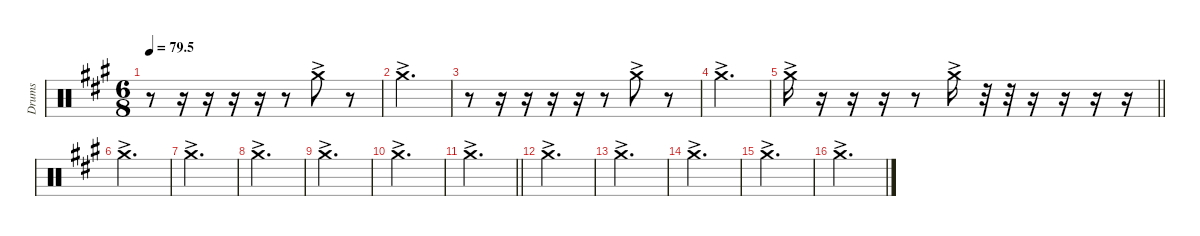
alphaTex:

\defaultSystemsLayout 4
\hideDynamics
\bracketExtendMode nobrackets
\otherSystemsTrackNameOrientation horizontal
\track ("Right crash" "Drums") {instrument percussion}
\staff {score}
\articulation defaults
\ts (6 8)
\tempo
79.5
\accidentals auto
\clef neutral
\ottava regular
\simile none
\scale
0.333333
\ks a
r.8{dy f} r.16 r.16 r.16 r.16 r.8 "Crash medium (hit)"{ac acc forcenatural}.8 r.8 |
\scale
0.333333 "Crash medium (hit)"{ac acc forcenatural}.2{d} |
\scale
0.333333 r.8 r.16 r.16 r.16 r.16 r.8 "Crash medium (hit)"{ac acc forcenatural}.8 r.8 |
\scale
0.333333 "Crash medium (hit)"{ac acc forcenatural}.2{d} |
\scale
0.333333
\barLineRight lightlight "Crash medium (hit)"{ac acc forcenatural}.16
r.16 r.16 r.16 r.8 "Crash medium (hit)"{ac acc forcenatural}.16 r.32 r.32 r.16 r.16 r.16 r.16 |
\scale
0.333333 "Crash medium (hit)"{ac acc forcenatural}.2{d} |
\scale
0.333333 "Crash medium (hit)"{ac acc forcenatural}.2{d} |
\scale
0.333333 "Crash medium (hit)"{ac acc forcenatural}.2{d} |
\scale
0.333333 "Crash medium (hit)"{ac acc forcenatural}.2{d} |
\scale
0.333333 "Crash medium (hit)"{ac acc forcenatural}.2{d} |
\scale
0.333333
\barLineRight lightlight "Crash medium (hit)"{ac acc forcenatural}.2{d}
|
\scale
0.333333 "Crash medium (hit)"{ac acc forcenatural}.2{d} |
\scale
0.333333 "Crash medium (hit)"{ac acc forcenatural}.2{d} |
\scale
0.333333 "Crash medium (hit)"{ac acc forcenatural}.2{d} |
\scale
0.333333 "Crash medium (hit)"{ac acc forcenatural}.2{d} |
\scale
0.333333 "Crash medium (hit)"{ac acc forcenatural}.2{d}
